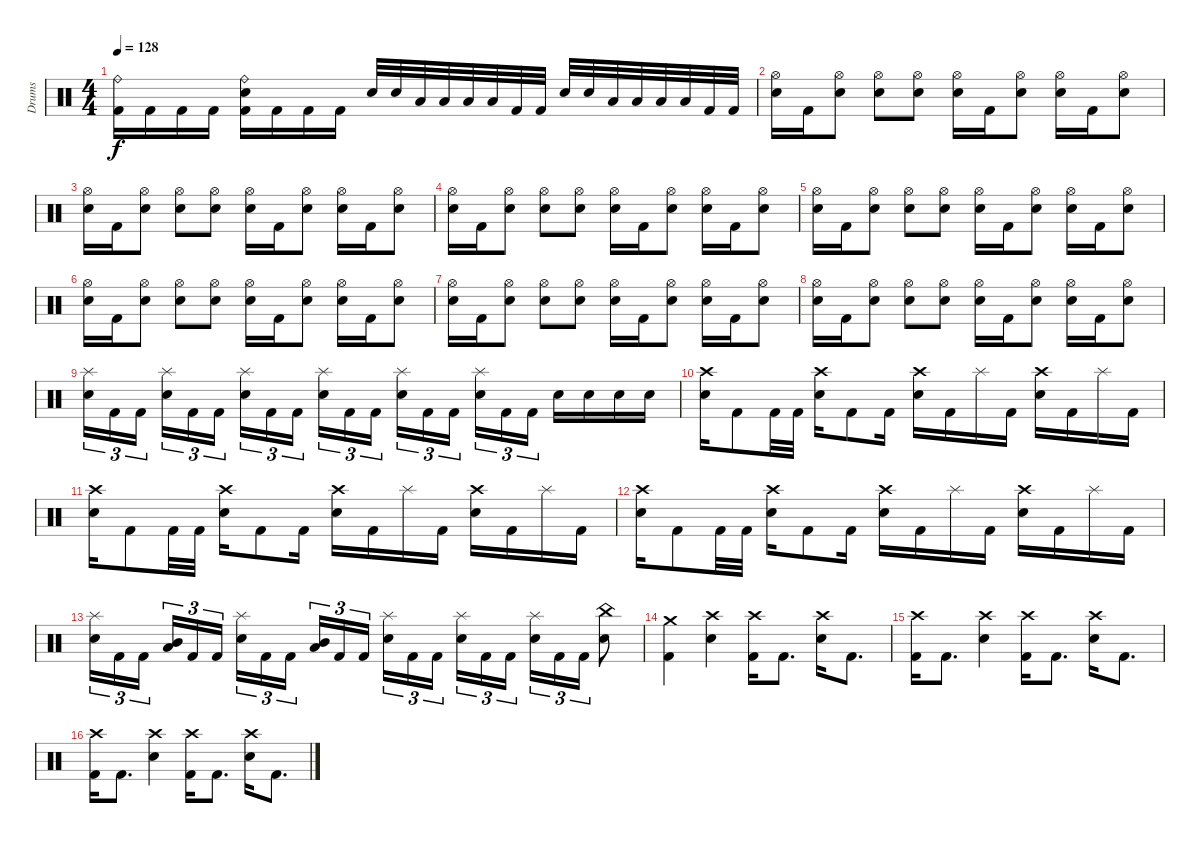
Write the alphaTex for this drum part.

\track ("Drums" "Drums") {instrument percussion}
\staff {score}
\articulation defaults
\ts (4 4)
\tempo 128
\clef neutral
\ks c
("Ride (bell)" "Kick (hit) 2").16{dy f} "Kick (hit) 2".16 "Kick (hit) 2".16 "Kick (hit) 2".16 ("Ride (bell)" "Electric Snare (hit)" "Kick (hit) 2").16 "Kick (hit) 2".16 "Kick (hit) 2".16 "Kick (hit) 2".16 "Electric Snare (hit)".32 "Electric Snare (hit)".32 "Low Tom (hit)".32 "Low Tom (hit)".32 "Low Tom (hit)".32 "Low Tom (hit)".32 "Kick (hit) 2".32 "Kick (hit) 2".32 "Electric Snare (hit)".32 "Electric Snare (hit)".32 "Low Tom (hit)".32 "Low Tom (hit)".32 "Low Tom (hit)".32 "Low Tom (hit)".32 "Kick (hit) 2".32 "Kick (hit) 2".32 |
("Hi-Hat (open)" "Electric Snare (hit)").16 "Kick (hit) 2".16 ("Hi-Hat (open)" "Electric Snare (hit)").8 ("Hi-Hat (open)" "Electric Snare (hit)").8 ("Hi-Hat (open)" "Electric Snare (hit)").8 ("Hi-Hat (open)" "Electric Snare (hit)").16 "Kick (hit) 2".16 ("Hi-Hat (open)" "Electric Snare (hit)").8 ("Hi-Hat (open)" "Electric Snare (hit)").16 "Kick (hit) 2".16 ("Hi-Hat (open)" "Electric Snare (hit)").8 |
("Hi-Hat (open)" "Electric Snare (hit)").16 "Kick (hit) 2".16 ("Hi-Hat (open)" "Electric Snare (hit)").8 ("Hi-Hat (open)" "Electric Snare (hit)").8 ("Hi-Hat (open)" "Electric Snare (hit)").8 ("Hi-Hat (open)" "Electric Snare (hit)").16 "Kick (hit) 2".16 ("Hi-Hat (open)" "Electric Snare (hit)").8 ("Hi-Hat (open)" "Electric Snare (hit)").16 "Kick (hit) 2".16 ("Hi-Hat (open)" "Electric Snare (hit)").8 |
("Hi-Hat (open)" "Electric Snare (hit)").16 "Kick (hit) 2".16 ("Hi-Hat (open)" "Electric Snare (hit)").8 ("Hi-Hat (open)" "Electric Snare (hit)").8 ("Hi-Hat (open)" "Electric Snare (hit)").8 ("Hi-Hat (open)" "Electric Snare (hit)").16 "Kick (hit) 2".16 ("Hi-Hat (open)" "Electric Snare (hit)").8 ("Hi-Hat (open)" "Electric Snare (hit)").16 "Kick (hit) 2".16 ("Hi-Hat (open)" "Electric Snare (hit)").8 |
("Hi-Hat (open)" "Electric Snare (hit)").16 "Kick (hit) 2".16 ("Hi-Hat (open)" "Electric Snare (hit)").8 ("Hi-Hat (open)" "Electric Snare (hit)").8 ("Hi-Hat (open)" "Electric Snare (hit)").8 ("Hi-Hat (open)" "Electric Snare (hit)").16 "Kick (hit) 2".16 ("Hi-Hat (open)" "Electric Snare (hit)").8 ("Hi-Hat (open)" "Electric Snare (hit)").16 "Kick (hit) 2".16 ("Hi-Hat (open)" "Electric Snare (hit)").8 |
("Hi-Hat (open)" "Electric Snare (hit)").16 "Kick (hit) 2".16 ("Hi-Hat (open)" "Electric Snare (hit)").8 ("Hi-Hat (open)" "Electric Snare (hit)").8 ("Hi-Hat (open)" "Electric Snare (hit)").8 ("Hi-Hat (open)" "Electric Snare (hit)").16 "Kick (hit) 2".16 ("Hi-Hat (open)" "Electric Snare (hit)").8 ("Hi-Hat (open)" "Electric Snare (hit)").16 "Kick (hit) 2".16 ("Hi-Hat (open)" "Electric Snare (hit)").8 |
("Hi-Hat (open)" "Electric Snare (hit)").16 "Kick (hit) 2".16 ("Hi-Hat (open)" "Electric Snare (hit)").8 ("Hi-Hat (open)" "Electric Snare (hit)").8 ("Hi-Hat (open)" "Electric Snare (hit)").8 ("Hi-Hat (open)" "Electric Snare (hit)").16 "Kick (hit) 2".16 ("Hi-Hat (open)" "Electric Snare (hit)").8 ("Hi-Hat (open)" "Electric Snare (hit)").16 "Kick (hit) 2".16 ("Hi-Hat (open)" "Electric Snare (hit)").8 |
("Hi-Hat (open)" "Electric Snare (hit)").16 "Kick (hit) 2".16 ("Hi-Hat (open)" "Electric Snare (hit)").8 ("Hi-Hat (open)" "Electric Snare (hit)").8 ("Hi-Hat (open)" "Electric Snare (hit)").8 ("Hi-Hat (open)" "Electric Snare (hit)").16 "Kick (hit) 2".16 ("Hi-Hat (open)" "Electric Snare (hit)").8 ("Hi-Hat (open)" "Electric Snare (hit)").16 "Kick (hit) 2".16 ("Hi-Hat (open)" "Electric Snare (hit)").8 |
("Splash (hit)" "Electric Snare (hit)").16{tu (3 2)} "Kick (hit) 2".16{tu (3 2)} "Kick (hit) 2".16{tu (3 2) beam splitsecondary} ("Splash (hit)" "Electric Snare (hit)").16{tu (3 2)} "Kick (hit) 2".16{tu (3 2)} "Kick (hit) 2".16{tu (3 2)} ("Splash (hit)" "Electric Snare (hit)").16{tu (3 2)} "Kick (hit) 2".16{tu (3 2)} "Kick (hit) 2".16{tu (3 2) beam splitsecondary} ("Splash (hit)" "Electric Snare (hit)").16{tu (3 2)} "Kick (hit) 2".16{tu (3 2)} "Kick (hit) 2".16{tu (3 2)} ("Splash (hit)" "Electric Snare (hit)").16{tu (3 2)} "Kick (hit) 2".16{tu (3 2)} "Kick (hit) 2".16{tu (3 2) beam splitsecondary} ("Splash (hit)" "Electric Snare (hit)").16{tu (3 2)} "Kick (hit) 2".16{tu (3 2)} "Kick (hit) 2".16{tu (3 2)} "Electric Snare (hit)".16 "Electric Snare (hit)".16 "Electric Snare (hit)".16 "Electric Snare (hit)".16 |
("Crash high (hit)" "Electric Snare (hit)").16 "Kick (hit) 2".8 "Kick (hit) 2".32 "Kick (hit) 2".32 ("Crash high (hit)" "Electric Snare (hit)").16 "Kick (hit) 2".8 "Kick (hit) 2".16 ("Crash high (hit)" "Electric Snare (hit)").16 "Kick (hit) 2".16 "Splash (hit)".16 "Kick (hit) 2".16 ("Crash high (hit)" "Electric Snare (hit)").16 "Kick (hit) 2".16 "Splash (hit)".16 "Kick (hit) 2".16 |
("Crash high (hit)" "Electric Snare (hit)").16 "Kick (hit) 2".8 "Kick (hit) 2".32 "Kick (hit) 2".32 ("Crash high (hit)" "Electric Snare (hit)").16 "Kick (hit) 2".8 "Kick (hit) 2".16 ("Crash high (hit)" "Electric Snare (hit)").16 "Kick (hit) 2".16 "Splash (hit)".16 "Kick (hit) 2".16 ("Crash high (hit)" "Electric Snare (hit)").16 "Kick (hit) 2".16 "Splash (hit)".16 "Kick (hit) 2".16 |
("Crash high (hit)" "Electric Snare (hit)").16 "Kick (hit) 2".8 "Kick (hit) 2".32 "Kick (hit) 2".32 ("Crash high (hit)" "Electric Snare (hit)").16 "Kick (hit) 2".8 "Kick (hit) 2".16 ("Crash high (hit)" "Electric Snare (hit)").16 "Kick (hit) 2".16 "Splash (hit)".16 "Kick (hit) 2".16 ("Crash high (hit)" "Electric Snare (hit)").16 "Kick (hit) 2".16 "Splash (hit)".16 "Kick (hit) 2".16 |
("Splash (hit)" "Electric Snare (hit)").16{tu (3 2)} "Kick (hit) 2".16{tu (3 2)} "Kick (hit) 2".16{tu (3 2) beam splitsecondary} ("Mid Tom (hit)" "Low Tom (hit)").16{tu (3 2)} "Kick (hit) 2".16{tu (3 2)} "Kick (hit) 2".16{tu (3 2)} ("Splash (hit)" "Electric Snare (hit)").16{tu (3 2)} "Kick (hit) 2".16{tu (3 2)} "Kick (hit) 2".16{tu (3 2) beam splitsecondary} ("Mid Tom (hit)" "Low Tom (hit)").16{tu (3 2)} "Kick (hit) 2".16{tu (3 2)} "Kick (hit) 2".16{tu (3 2)} ("Splash (hit)" "Electric Snare (hit)").16{tu (3 2)} "Kick (hit) 2".16{tu (3 2)} "Kick (hit) 2".16{tu (3 2) beam splitsecondary} ("Splash (hit)" "Electric Snare (hit)").16{tu (3 2)} "Kick (hit) 2".16{tu (3 2)} "Kick (hit) 2".16{tu (3 2)} ("Splash (hit)" "Electric Snare (hit)").16{tu (3 2)} "Kick (hit) 2".16{tu (3 2)} "Kick (hit) 2".16{tu (3 2)} ("China (hit)" "Electric Snare (hit)").8 |
("Crash medium (hit)" "Kick (hit) 2").4 ("Crash high (hit)" "Electric Snare (hit)").4 ("Crash high (hit)" "Kick (hit) 2").16 "Kick (hit) 2".8{d} ("Crash high (hit)" "Electric Snare (hit)").16 "Kick (hit) 2".8{d} |
("Crash high (hit)" "Kick (hit) 2").16 "Kick (hit) 2".8{d} ("Crash high (hit)" "Electric Snare (hit)").4 ("Crash high (hit)" "Kick (hit) 2").16 "Kick (hit) 2".8{d} ("Crash high (hit)" "Electric Snare (hit)").16 "Kick (hit) 2".8{d} |
("Crash high (hit)" "Kick (hit) 2").16 "Kick (hit) 2".8{d} ("Crash high (hit)" "Electric Snare (hit)").4 ("Crash high (hit)" "Kick (hit) 2").16 "Kick (hit) 2".8{d} ("Crash high (hit)" "Electric Snare (hit)").16 "Kick (hit) 2".8{d}
